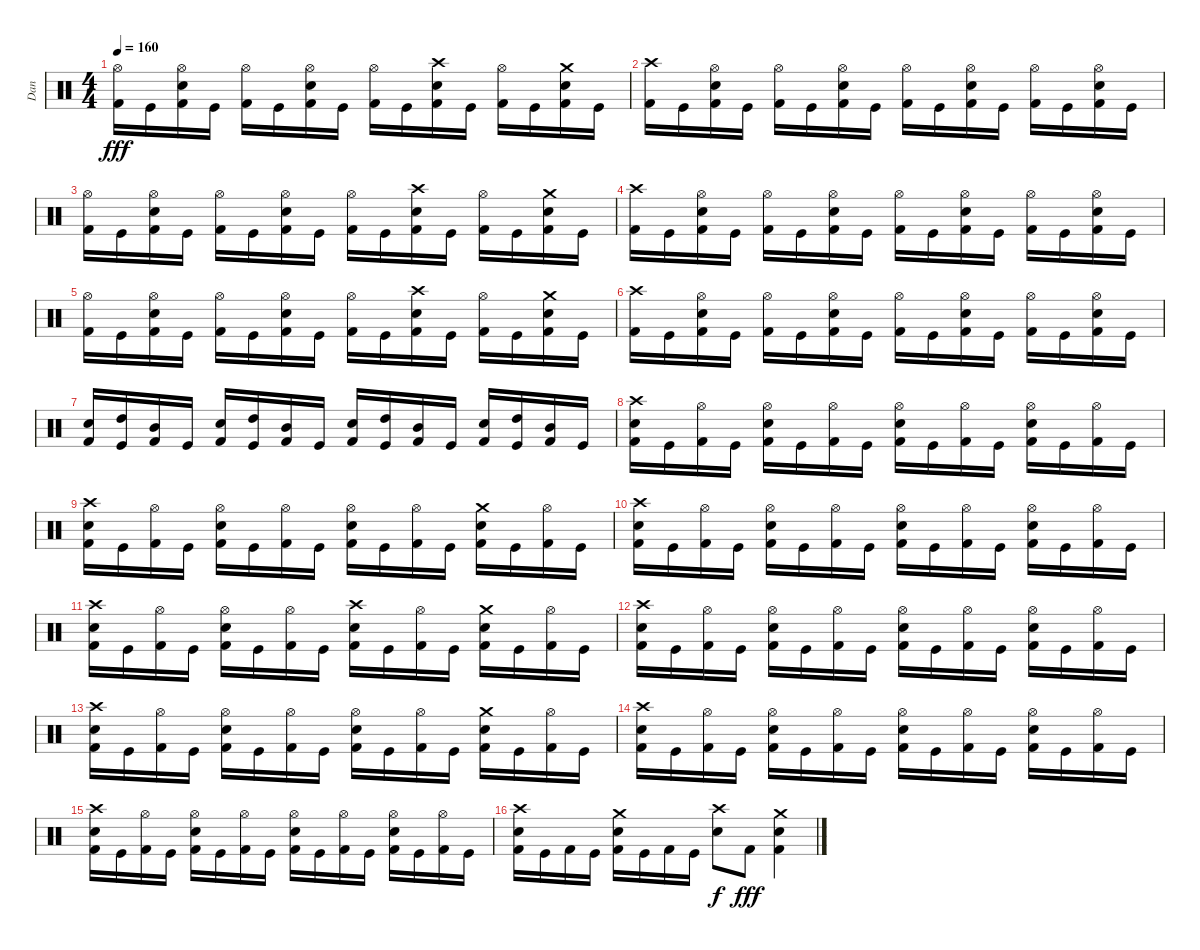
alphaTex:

\track ("Dan " "Dan ") {instrument percussion}
\staff {score}
\articulation defaults
\ts (4 4)
\tempo 160
\clef neutral
\ks c
("Hi-Hat (open)" "Kick (hit) 2").16{dy fff} "Kick (hit)".16 ("Hi-Hat (open)" "Electric Snare (hit)" "Kick (hit) 2").16 "Kick (hit)".16 ("Hi-Hat (open)" "Kick (hit) 2").16 "Kick (hit)".16 ("Hi-Hat (open)" "Electric Snare (hit)" "Kick (hit) 2").16 "Kick (hit)".16 ("Hi-Hat (open)" "Kick (hit) 2").16 "Kick (hit)".16 ("Crash high (hit)" "Electric Snare (hit)" "Kick (hit) 2").16 "Kick (hit)".16 ("Hi-Hat (open)" "Kick (hit) 2").16 "Kick (hit)".16 ("Crash medium (hit)" "Electric Snare (hit)" "Kick (hit) 2").16 "Kick (hit)".16 |
("Crash high (hit)" "Kick (hit) 2").16 "Kick (hit)".16 ("Hi-Hat (open)" "Electric Snare (hit)" "Kick (hit) 2").16 "Kick (hit)".16 ("Hi-Hat (open)" "Kick (hit) 2").16 "Kick (hit)".16 ("Hi-Hat (open)" "Electric Snare (hit)" "Kick (hit) 2").16 "Kick (hit)".16 ("Hi-Hat (open)" "Kick (hit) 2").16 "Kick (hit)".16 ("Hi-Hat (open)" "Electric Snare (hit)" "Kick (hit) 2").16 "Kick (hit)".16 ("Hi-Hat (open)" "Kick (hit) 2").16 "Kick (hit)".16 ("Hi-Hat (open)" "Electric Snare (hit)" "Kick (hit) 2").16 "Kick (hit)".16 |
("Hi-Hat (open)" "Kick (hit) 2").16 "Kick (hit)".16 ("Hi-Hat (open)" "Electric Snare (hit)" "Kick (hit) 2").16 "Kick (hit)".16 ("Hi-Hat (open)" "Kick (hit) 2").16 "Kick (hit)".16 ("Hi-Hat (open)" "Electric Snare (hit)" "Kick (hit) 2").16 "Kick (hit)".16 ("Hi-Hat (open)" "Kick (hit) 2").16 "Kick (hit)".16 ("Crash high (hit)" "Electric Snare (hit)" "Kick (hit) 2").16 "Kick (hit)".16 ("Hi-Hat (open)" "Kick (hit) 2").16 "Kick (hit)".16 ("Crash medium (hit)" "Electric Snare (hit)" "Kick (hit) 2").16 "Kick (hit)".16 |
("Crash high (hit)" "Kick (hit) 2").16 "Kick (hit)".16 ("Hi-Hat (open)" "Electric Snare (hit)" "Kick (hit) 2").16 "Kick (hit)".16 ("Hi-Hat (open)" "Kick (hit) 2").16 "Kick (hit)".16 ("Hi-Hat (open)" "Electric Snare (hit)" "Kick (hit) 2").16 "Kick (hit)".16 ("Hi-Hat (open)" "Kick (hit) 2").16 "Kick (hit)".16 ("Hi-Hat (open)" "Electric Snare (hit)" "Kick (hit) 2").16 "Kick (hit)".16 ("Hi-Hat (open)" "Kick (hit) 2").16 "Kick (hit)".16 ("Hi-Hat (open)" "Electric Snare (hit)" "Kick (hit) 2").16 "Kick (hit)".16 |
("Hi-Hat (open)" "Kick (hit) 2").16 "Kick (hit)".16 ("Hi-Hat (open)" "Electric Snare (hit)" "Kick (hit) 2").16 "Kick (hit)".16 ("Hi-Hat (open)" "Kick (hit) 2").16 "Kick (hit)".16 ("Hi-Hat (open)" "Electric Snare (hit)" "Kick (hit) 2").16 "Kick (hit)".16 ("Hi-Hat (open)" "Kick (hit) 2").16 "Kick (hit)".16 ("Crash high (hit)" "Electric Snare (hit)" "Kick (hit) 2").16 "Kick (hit)".16 ("Hi-Hat (open)" "Kick (hit) 2").16 "Kick (hit)".16 ("Crash medium (hit)" "Electric Snare (hit)" "Kick (hit) 2").16 "Kick (hit)".16 |
("Crash high (hit)" "Kick (hit) 2").16 "Kick (hit)".16 ("Hi-Hat (open)" "Electric Snare (hit)" "Kick (hit) 2").16 "Kick (hit)".16 ("Hi-Hat (open)" "Kick (hit) 2").16 "Kick (hit)".16 ("Hi-Hat (open)" "Electric Snare (hit)" "Kick (hit) 2").16 "Kick (hit)".16 ("Hi-Hat (open)" "Kick (hit) 2").16 "Kick (hit)".16 ("Hi-Hat (open)" "Electric Snare (hit)" "Kick (hit) 2").16 "Kick (hit)".16 ("Hi-Hat (open)" "Kick (hit) 2").16 "Kick (hit)".16 ("Hi-Hat (open)" "Electric Snare (hit)" "Kick (hit) 2").16 "Kick (hit)".16 |
("Electric Snare (hit)" "Kick (hit) 2").16 ("High Tom (hit)" "Kick (hit)").16 ("Mid Tom (hit)" "Kick (hit) 2").16 "Kick (hit)".16 ("Electric Snare (hit)" "Kick (hit) 2").16 ("High Tom (hit)" "Kick (hit)").16 ("Mid Tom (hit)" "Kick (hit) 2").16 "Kick (hit)".16 ("Electric Snare (hit)" "Kick (hit) 2").16 ("High Tom (hit)" "Kick (hit)").16 ("Mid Tom (hit)" "Kick (hit) 2").16 "Kick (hit)".16 ("Electric Snare (hit)" "Kick (hit) 2").16 ("High Tom (hit)" "Kick (hit)").16 ("Mid Tom (hit)" "Kick (hit) 2").16 "Kick (hit)".16 |
("Crash high (hit)" "Electric Snare (hit)" "Kick (hit) 2").16 "Kick (hit)".16 ("Hi-Hat (open)" "Kick (hit) 2").16 "Kick (hit)".16 ("Hi-Hat (open)" "Electric Snare (hit)" "Kick (hit) 2").16 "Kick (hit)".16 ("Hi-Hat (open)" "Kick (hit) 2").16 "Kick (hit)".16 ("Hi-Hat (open)" "Electric Snare (hit)" "Kick (hit) 2").16 "Kick (hit)".16 ("Hi-Hat (open)" "Kick (hit) 2").16 "Kick (hit)".16 ("Hi-Hat (open)" "Electric Snare (hit)" "Kick (hit) 2").16 "Kick (hit)".16 ("Hi-Hat (open)" "Kick (hit) 2").16 "Kick (hit)".16 |
("Crash high (hit)" "Electric Snare (hit)" "Kick (hit) 2").16 "Kick (hit)".16 ("Hi-Hat (open)" "Kick (hit) 2").16 "Kick (hit)".16 ("Hi-Hat (open)" "Electric Snare (hit)" "Kick (hit) 2").16 "Kick (hit)".16 ("Hi-Hat (open)" "Kick (hit) 2").16 "Kick (hit)".16 ("Hi-Hat (open)" "Electric Snare (hit)" "Kick (hit) 2").16 "Kick (hit)".16 ("Hi-Hat (open)" "Kick (hit) 2").16 "Kick (hit)".16 ("Crash medium (hit)" "Electric Snare (hit)" "Kick (hit) 2").16 "Kick (hit)".16 ("Hi-Hat (open)" "Kick (hit) 2").16 "Kick (hit)".16 |
("Crash high (hit)" "Electric Snare (hit)" "Kick (hit) 2").16 "Kick (hit)".16 ("Hi-Hat (open)" "Kick (hit) 2").16 "Kick (hit)".16 ("Hi-Hat (open)" "Electric Snare (hit)" "Kick (hit) 2").16 "Kick (hit)".16 ("Hi-Hat (open)" "Kick (hit) 2").16 "Kick (hit)".16 ("Hi-Hat (open)" "Electric Snare (hit)" "Kick (hit) 2").16 "Kick (hit)".16 ("Hi-Hat (open)" "Kick (hit) 2").16 "Kick (hit)".16 ("Hi-Hat (open)" "Electric Snare (hit)" "Kick (hit) 2").16 "Kick (hit)".16 ("Hi-Hat (open)" "Kick (hit) 2").16 "Kick (hit)".16 |
("Crash high (hit)" "Electric Snare (hit)" "Kick (hit) 2").16 "Kick (hit)".16 ("Hi-Hat (open)" "Kick (hit) 2").16 "Kick (hit)".16 ("Hi-Hat (open)" "Electric Snare (hit)" "Kick (hit) 2").16 "Kick (hit)".16 ("Hi-Hat (open)" "Kick (hit) 2").16 "Kick (hit)".16 ("Crash high (hit)" "Electric Snare (hit)" "Kick (hit) 2").16 "Kick (hit)".16 ("Hi-Hat (open)" "Kick (hit) 2").16 "Kick (hit)".16 ("Crash medium (hit)" "Electric Snare (hit)" "Kick (hit) 2").16 "Kick (hit)".16 ("Hi-Hat (open)" "Kick (hit) 2").16 "Kick (hit)".16 |
("Crash high (hit)" "Electric Snare (hit)" "Kick (hit) 2").16 "Kick (hit)".16 ("Hi-Hat (open)" "Kick (hit) 2").16 "Kick (hit)".16 ("Hi-Hat (open)" "Electric Snare (hit)" "Kick (hit) 2").16 "Kick (hit)".16 ("Hi-Hat (open)" "Kick (hit) 2").16 "Kick (hit)".16 ("Hi-Hat (open)" "Electric Snare (hit)" "Kick (hit) 2").16 "Kick (hit)".16 ("Hi-Hat (open)" "Kick (hit) 2").16 "Kick (hit)".16 ("Hi-Hat (open)" "Electric Snare (hit)" "Kick (hit) 2").16 "Kick (hit)".16 ("Hi-Hat (open)" "Kick (hit) 2").16 "Kick (hit)".16 |
("Crash high (hit)" "Electric Snare (hit)" "Kick (hit) 2").16 "Kick (hit)".16 ("Hi-Hat (open)" "Kick (hit) 2").16 "Kick (hit)".16 ("Hi-Hat (open)" "Electric Snare (hit)" "Kick (hit) 2").16 "Kick (hit)".16 ("Hi-Hat (open)" "Kick (hit) 2").16 "Kick (hit)".16 ("Hi-Hat (open)" "Electric Snare (hit)" "Kick (hit) 2").16 "Kick (hit)".16 ("Hi-Hat (open)" "Kick (hit) 2").16 "Kick (hit)".16 ("Crash medium (hit)" "Electric Snare (hit)" "Kick (hit) 2").16 "Kick (hit)".16 ("Hi-Hat (open)" "Kick (hit) 2").16 "Kick (hit)".16 |
("Crash high (hit)" "Electric Snare (hit)" "Kick (hit) 2").16 "Kick (hit)".16 ("Hi-Hat (open)" "Kick (hit) 2").16 "Kick (hit)".16 ("Hi-Hat (open)" "Electric Snare (hit)" "Kick (hit) 2").16 "Kick (hit)".16 ("Hi-Hat (open)" "Kick (hit) 2").16 "Kick (hit)".16 ("Hi-Hat (open)" "Electric Snare (hit)" "Kick (hit) 2").16 "Kick (hit)".16 ("Hi-Hat (open)" "Kick (hit) 2").16 "Kick (hit)".16 ("Hi-Hat (open)" "Electric Snare (hit)" "Kick (hit) 2").16 "Kick (hit)".16 ("Hi-Hat (open)" "Kick (hit) 2").16 "Kick (hit)".16 |
("Crash high (hit)" "Electric Snare (hit)" "Kick (hit) 2").16 "Kick (hit)".16 ("Hi-Hat (open)" "Kick (hit) 2").16 "Kick (hit)".16 ("Hi-Hat (open)" "Electric Snare (hit)" "Kick (hit) 2").16 "Kick (hit)".16 ("Hi-Hat (open)" "Kick (hit) 2").16 "Kick (hit)".16 ("Hi-Hat (open)" "Electric Snare (hit)" "Kick (hit) 2").16 "Kick (hit)".16 ("Hi-Hat (open)" "Kick (hit) 2").16 "Kick (hit)".16 ("Hi-Hat (open)" "Electric Snare (hit)" "Kick (hit) 2").16 "Kick (hit)".16 ("Hi-Hat (open)" "Kick (hit) 2").16 "Kick (hit)".16 |
("Crash high (hit)" "Electric Snare (hit)" "Kick (hit) 2").16 "Kick (hit)".16 "Kick (hit) 2".16 "Kick (hit)".16 ("Crash medium (hit)" "Electric Snare (hit)" "Kick (hit) 2").16 "Kick (hit)".16 "Kick (hit) 2".16 "Kick (hit)".16 ("Crash high (hit)" "Electric Snare (hit)").8{dy f} "Kick (hit) 2".8{dy fff} ("Crash medium (hit)" "Electric Snare (hit)" "Kick (hit) 2").4
